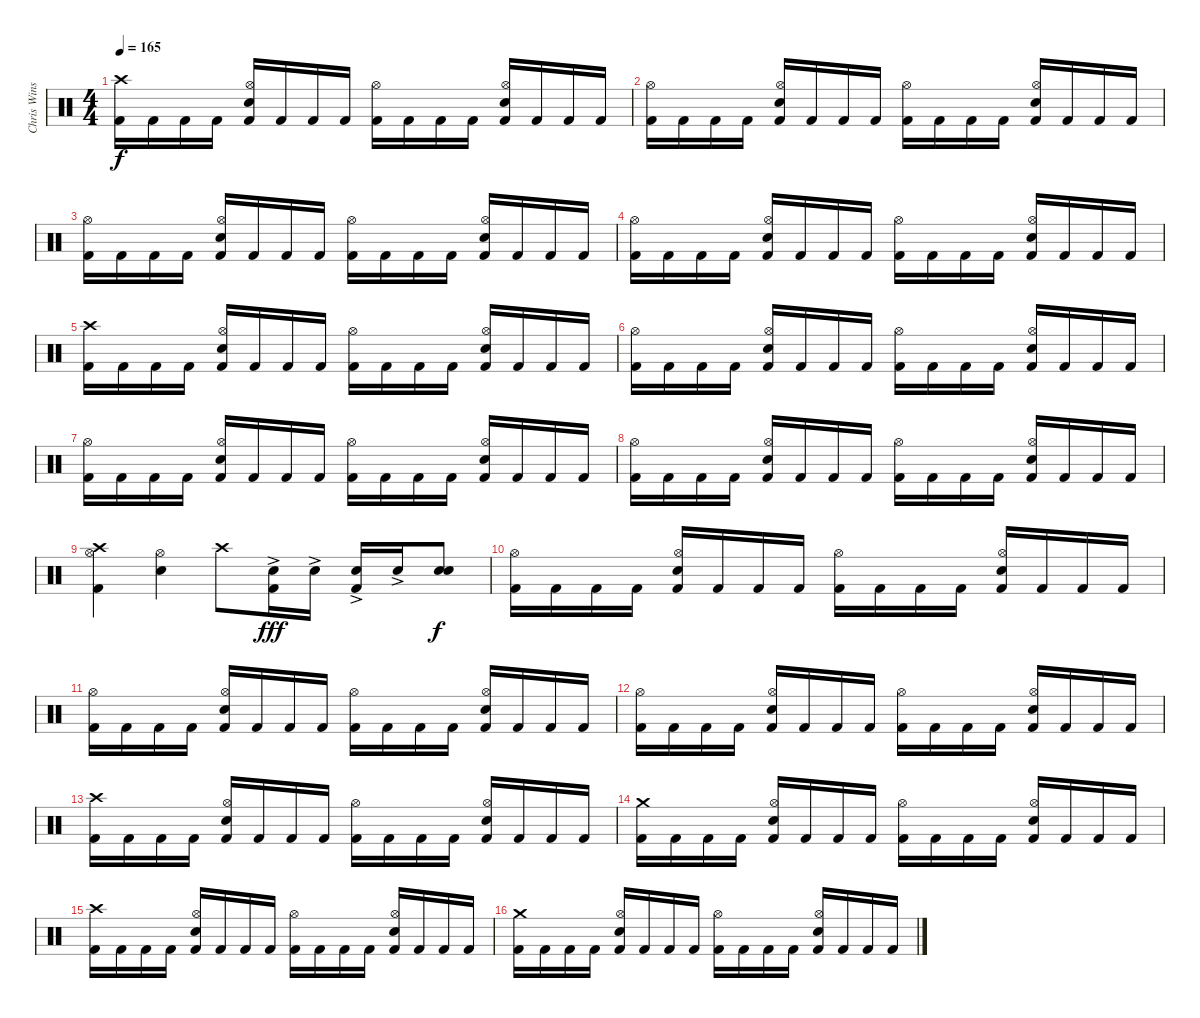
\track ("Chris Winship (Bass)" "Chris Wins") {instrument percussion}
\staff {score}
\articulation defaults
\ts (4 4)
\tempo 165
\clef neutral
\ks c
("Crash high (hit)" "Kick (hit) 2").16{dy f} "Kick (hit) 2".16 "Kick (hit) 2".16 "Kick (hit) 2".16 ("Hi-Hat (open)" "Snare (hit) 2" "Kick (hit) 2").16 "Kick (hit) 2".16 "Kick (hit) 2".16 "Kick (hit) 2".16 ("Hi-Hat (open)" "Kick (hit) 2").16 "Kick (hit) 2".16 "Kick (hit) 2".16 "Kick (hit) 2".16 ("Hi-Hat (open)" "Snare (hit) 2" "Kick (hit) 2").16 "Kick (hit) 2".16 "Kick (hit) 2".16 "Kick (hit) 2".16 |
("Hi-Hat (open)" "Kick (hit) 2").16 "Kick (hit) 2".16 "Kick (hit) 2".16 "Kick (hit) 2".16 ("Hi-Hat (open)" "Snare (hit) 2" "Kick (hit) 2").16 "Kick (hit) 2".16 "Kick (hit) 2".16 "Kick (hit) 2".16 ("Hi-Hat (open)" "Kick (hit) 2").16 "Kick (hit) 2".16 "Kick (hit) 2".16 "Kick (hit) 2".16 ("Hi-Hat (open)" "Snare (hit) 2" "Kick (hit) 2").16 "Kick (hit) 2".16 "Kick (hit) 2".16 "Kick (hit) 2".16 |
("Hi-Hat (open)" "Kick (hit) 2").16 "Kick (hit) 2".16 "Kick (hit) 2".16 "Kick (hit) 2".16 ("Hi-Hat (open)" "Snare (hit) 2" "Kick (hit) 2").16 "Kick (hit) 2".16 "Kick (hit) 2".16 "Kick (hit) 2".16 ("Hi-Hat (open)" "Kick (hit) 2").16 "Kick (hit) 2".16 "Kick (hit) 2".16 "Kick (hit) 2".16 ("Hi-Hat (open)" "Snare (hit) 2" "Kick (hit) 2").16 "Kick (hit) 2".16 "Kick (hit) 2".16 "Kick (hit) 2".16 |
("Hi-Hat (open)" "Kick (hit) 2").16 "Kick (hit) 2".16 "Kick (hit) 2".16 "Kick (hit) 2".16 ("Hi-Hat (open)" "Snare (hit) 2" "Kick (hit) 2").16 "Kick (hit) 2".16 "Kick (hit) 2".16 "Kick (hit) 2".16 ("Hi-Hat (open)" "Kick (hit) 2").16 "Kick (hit) 2".16 "Kick (hit) 2".16 "Kick (hit) 2".16 ("Hi-Hat (open)" "Snare (hit) 2" "Kick (hit) 2").16 "Kick (hit) 2".16 "Kick (hit) 2".16 "Kick (hit) 2".16 |
("Crash high (hit)" "Kick (hit) 2").16 "Kick (hit) 2".16 "Kick (hit) 2".16 "Kick (hit) 2".16 ("Hi-Hat (open)" "Snare (hit) 2" "Kick (hit) 2").16 "Kick (hit) 2".16 "Kick (hit) 2".16 "Kick (hit) 2".16 ("Hi-Hat (open)" "Kick (hit) 2").16 "Kick (hit) 2".16 "Kick (hit) 2".16 "Kick (hit) 2".16 ("Hi-Hat (open)" "Snare (hit) 2" "Kick (hit) 2").16 "Kick (hit) 2".16 "Kick (hit) 2".16 "Kick (hit) 2".16 |
("Hi-Hat (open)" "Kick (hit) 2").16 "Kick (hit) 2".16 "Kick (hit) 2".16 "Kick (hit) 2".16 ("Hi-Hat (open)" "Snare (hit) 2" "Kick (hit) 2").16 "Kick (hit) 2".16 "Kick (hit) 2".16 "Kick (hit) 2".16 ("Hi-Hat (open)" "Kick (hit) 2").16 "Kick (hit) 2".16 "Kick (hit) 2".16 "Kick (hit) 2".16 ("Hi-Hat (open)" "Snare (hit) 2" "Kick (hit) 2").16 "Kick (hit) 2".16 "Kick (hit) 2".16 "Kick (hit) 2".16 |
("Hi-Hat (open)" "Kick (hit) 2").16 "Kick (hit) 2".16 "Kick (hit) 2".16 "Kick (hit) 2".16 ("Hi-Hat (open)" "Snare (hit) 2" "Kick (hit) 2").16 "Kick (hit) 2".16 "Kick (hit) 2".16 "Kick (hit) 2".16 ("Hi-Hat (open)" "Kick (hit) 2").16 "Kick (hit) 2".16 "Kick (hit) 2".16 "Kick (hit) 2".16 ("Hi-Hat (open)" "Snare (hit) 2" "Kick (hit) 2").16 "Kick (hit) 2".16 "Kick (hit) 2".16 "Kick (hit) 2".16 |
("Hi-Hat (open)" "Kick (hit) 2").16 "Kick (hit) 2".16 "Kick (hit) 2".16 "Kick (hit) 2".16 ("Hi-Hat (open)" "Snare (hit) 2" "Kick (hit) 2").16 "Kick (hit) 2".16 "Kick (hit) 2".16 "Kick (hit) 2".16 ("Hi-Hat (open)" "Kick (hit) 2").16 "Kick (hit) 2".16 "Kick (hit) 2".16 "Kick (hit) 2".16 ("Hi-Hat (open)" "Snare (hit) 2" "Kick (hit) 2").16 "Kick (hit) 2".16 "Kick (hit) 2".16 "Kick (hit) 2".16 |
("Crash high (hit)" "Hi-Hat (open)" "Kick (hit) 2").4 ("Hi-Hat (open)" "Snare (hit) 2").4 "Crash high (hit)".8 ("Snare (hit) 2"{ac} "Kick (hit) 2").16{dy fff} "Snare (hit) 2"{ac}.16 ("Snare (hit) 2"{ac} "Kick (hit) 2").16 "Snare (hit) 2"{ac}.16 ("Snare (hit) 2" "Snare (hit) 2").8{bd 480 dy f} |
("Hi-Hat (open)" "Kick (hit) 2").16 "Kick (hit) 2".16 "Kick (hit) 2".16 "Kick (hit) 2".16 ("Hi-Hat (open)" "Snare (hit) 2" "Kick (hit) 2").16 "Kick (hit) 2".16 "Kick (hit) 2".16 "Kick (hit) 2".16 ("Hi-Hat (open)" "Kick (hit) 2").16 "Kick (hit) 2".16 "Kick (hit) 2".16 "Kick (hit) 2".16 ("Hi-Hat (open)" "Snare (hit) 2" "Kick (hit) 2").16 "Kick (hit) 2".16 "Kick (hit) 2".16 "Kick (hit) 2".16 |
("Hi-Hat (open)" "Kick (hit) 2").16 "Kick (hit) 2".16 "Kick (hit) 2".16 "Kick (hit) 2".16 ("Hi-Hat (open)" "Snare (hit) 2" "Kick (hit) 2").16 "Kick (hit) 2".16 "Kick (hit) 2".16 "Kick (hit) 2".16 ("Hi-Hat (open)" "Kick (hit) 2").16 "Kick (hit) 2".16 "Kick (hit) 2".16 "Kick (hit) 2".16 ("Hi-Hat (open)" "Snare (hit) 2" "Kick (hit) 2").16 "Kick (hit) 2".16 "Kick (hit) 2".16 "Kick (hit) 2".16 |
("Hi-Hat (open)" "Kick (hit) 2").16 "Kick (hit) 2".16 "Kick (hit) 2".16 "Kick (hit) 2".16 ("Hi-Hat (open)" "Snare (hit) 2" "Kick (hit) 2").16 "Kick (hit) 2".16 "Kick (hit) 2".16 "Kick (hit) 2".16 ("Hi-Hat (open)" "Kick (hit) 2").16 "Kick (hit) 2".16 "Kick (hit) 2".16 "Kick (hit) 2".16 ("Hi-Hat (open)" "Snare (hit) 2" "Kick (hit) 2").16 "Kick (hit) 2".16 "Kick (hit) 2".16 "Kick (hit) 2".16 |
("Crash high (hit)" "Kick (hit) 2").16 "Kick (hit) 2".16 "Kick (hit) 2".16 "Kick (hit) 2".16 ("Hi-Hat (open)" "Snare (hit) 2" "Kick (hit) 2").16 "Kick (hit) 2".16 "Kick (hit) 2".16 "Kick (hit) 2".16 ("Hi-Hat (open)" "Kick (hit) 2").16 "Kick (hit) 2".16 "Kick (hit) 2".16 "Kick (hit) 2".16 ("Hi-Hat (open)" "Snare (hit) 2" "Kick (hit) 2").16 "Kick (hit) 2".16 "Kick (hit) 2".16 "Kick (hit) 2".16 |
("Crash medium (hit)" "Kick (hit) 2").16 "Kick (hit) 2".16 "Kick (hit) 2".16 "Kick (hit) 2".16 ("Hi-Hat (open)" "Snare (hit) 2" "Kick (hit) 2").16 "Kick (hit) 2".16 "Kick (hit) 2".16 "Kick (hit) 2".16 ("Hi-Hat (open)" "Kick (hit) 2").16 "Kick (hit) 2".16 "Kick (hit) 2".16 "Kick (hit) 2".16 ("Hi-Hat (open)" "Snare (hit) 2" "Kick (hit) 2").16 "Kick (hit) 2".16 "Kick (hit) 2".16 "Kick (hit) 2".16 |
("Crash high (hit)" "Kick (hit) 2").16 "Kick (hit) 2".16 "Kick (hit) 2".16 "Kick (hit) 2".16 ("Hi-Hat (open)" "Snare (hit) 2" "Kick (hit) 2").16 "Kick (hit) 2".16 "Kick (hit) 2".16 "Kick (hit) 2".16 ("Hi-Hat (open)" "Kick (hit) 2").16 "Kick (hit) 2".16 "Kick (hit) 2".16 "Kick (hit) 2".16 ("Hi-Hat (open)" "Snare (hit) 2" "Kick (hit) 2").16 "Kick (hit) 2".16 "Kick (hit) 2".16 "Kick (hit) 2".16 |
("Crash medium (hit)" "Kick (hit) 2").16 "Kick (hit) 2".16 "Kick (hit) 2".16 "Kick (hit) 2".16 ("Hi-Hat (open)" "Snare (hit) 2" "Kick (hit) 2").16 "Kick (hit) 2".16 "Kick (hit) 2".16 "Kick (hit) 2".16 ("Hi-Hat (open)" "Kick (hit) 2").16 "Kick (hit) 2".16 "Kick (hit) 2".16 "Kick (hit) 2".16 ("Hi-Hat (open)" "Snare (hit) 2" "Kick (hit) 2").16 "Kick (hit) 2".16 "Kick (hit) 2".16 "Kick (hit) 2".16
